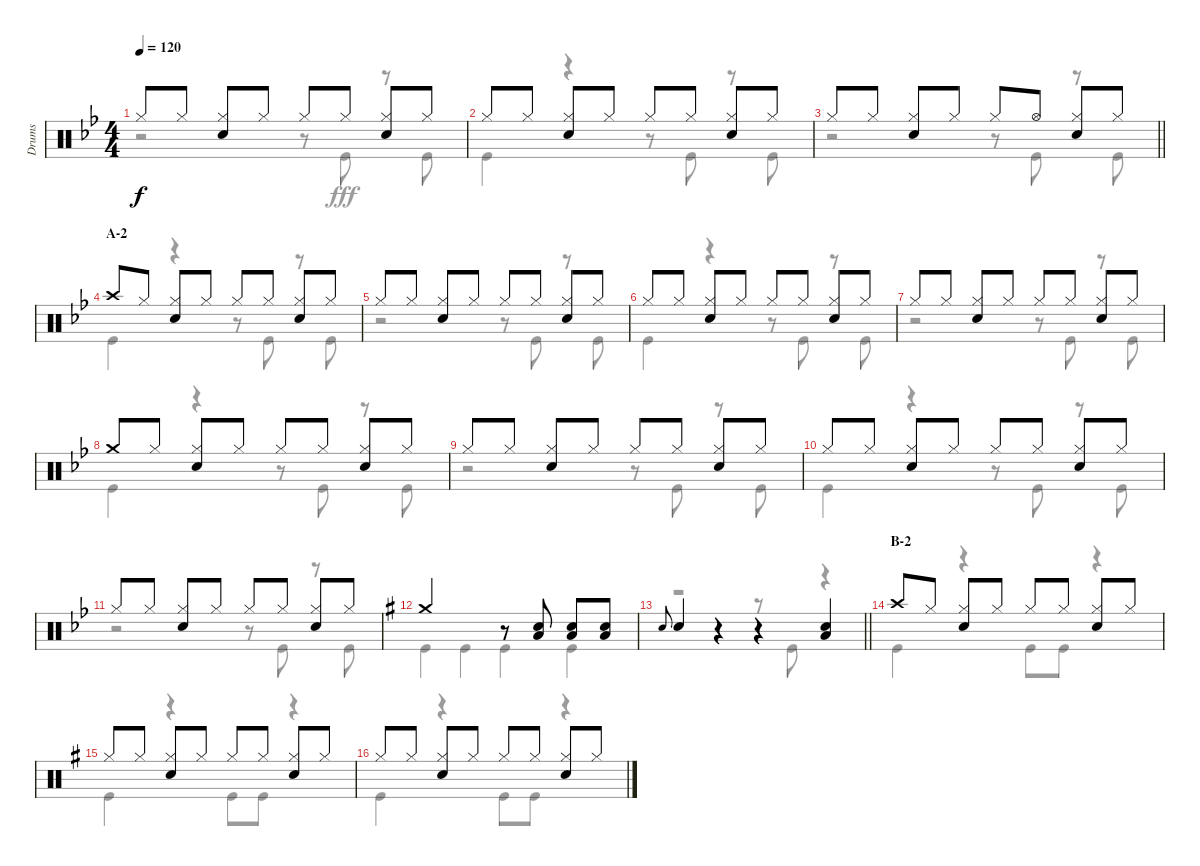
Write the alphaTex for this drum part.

\track ("Drums" "Drums") {instrument percussion}
\staff {score}
\articulation defaults
\voice
\ts (4 4)
\tempo 120
\clef neutral
\ks bb "Hi-Hat (closed)".8{dy f} "Hi-Hat (closed)".8
("Hi-Hat (closed)" "Snare (hit) 2").8 "Hi-Hat (closed)".8 "Hi-Hat (closed)".8 "Hi-Hat (closed)".8 ("Hi-Hat (closed)" "Snare (hit) 2").8 "Hi-Hat (closed)".8 |
"Hi-Hat (closed)".8 "Hi-Hat (closed)".8 ("Hi-Hat (closed)" "Snare (hit) 2").8 "Hi-Hat (closed)".8 "Hi-Hat (closed)".8 "Hi-Hat (closed)".8 ("Hi-Hat (closed)" "Snare (hit) 2").8 "Hi-Hat (closed)".8 |
\barLineRight lightlight "Hi-Hat (closed)".8 "Hi-Hat (closed)".8
("Hi-Hat (closed)" "Snare (hit) 2").8 "Hi-Hat (closed)".8 "Hi-Hat (closed)".8 "Hi-Hat (open)".8 ("Hi-Hat (closed)" "Snare (hit) 2").8 "Hi-Hat (closed)".8 |
\section ("" "A-2")
"Crash high (hit)".8 "Hi-Hat (closed)".8 ("Hi-Hat (closed)" "Snare (hit) 2").8 "Hi-Hat (closed)".8 "Hi-Hat (closed)".8 "Hi-Hat (closed)".8 ("Hi-Hat (closed)" "Snare (hit) 2").8 "Hi-Hat (closed)".8 |
"Hi-Hat (closed)".8 "Hi-Hat (closed)".8 ("Hi-Hat (closed)" "Snare (hit) 2").8 "Hi-Hat (closed)".8 "Hi-Hat (closed)".8 "Hi-Hat (closed)".8 ("Hi-Hat (closed)" "Snare (hit) 2").8 "Hi-Hat (closed)".8 |
"Hi-Hat (closed)".8 "Hi-Hat (closed)".8 ("Hi-Hat (closed)" "Snare (hit) 2").8 "Hi-Hat (closed)".8 "Hi-Hat (closed)".8 "Hi-Hat (closed)".8 ("Hi-Hat (closed)" "Snare (hit) 2").8 "Hi-Hat (closed)".8 |
"Hi-Hat (closed)".8 "Hi-Hat (closed)".8 ("Hi-Hat (closed)" "Snare (hit) 2").8 "Hi-Hat (closed)".8 "Hi-Hat (closed)".8 "Hi-Hat (closed)".8 ("Hi-Hat (closed)" "Snare (hit) 2").8 "Hi-Hat (closed)".8 |
"Crash medium (hit)".8 "Hi-Hat (closed)".8 ("Hi-Hat (closed)" "Snare (hit) 2").8 "Hi-Hat (closed)".8 "Hi-Hat (closed)".8 "Hi-Hat (closed)".8 ("Hi-Hat (closed)" "Snare (hit) 2").8 "Hi-Hat (closed)".8 |
"Hi-Hat (closed)".8 "Hi-Hat (closed)".8 ("Hi-Hat (closed)" "Snare (hit) 2").8 "Hi-Hat (closed)".8 "Hi-Hat (closed)".8 "Hi-Hat (closed)".8 ("Hi-Hat (closed)" "Snare (hit) 2").8 "Hi-Hat (closed)".8 |
"Hi-Hat (closed)".8 "Hi-Hat (closed)".8 ("Hi-Hat (closed)" "Snare (hit) 2").8 "Hi-Hat (closed)".8 "Hi-Hat (closed)".8 "Hi-Hat (closed)".8 ("Hi-Hat (closed)" "Snare (hit) 2").8 "Hi-Hat (closed)".8 |
"Hi-Hat (closed)".8 "Hi-Hat (closed)".8 ("Hi-Hat (closed)" "Snare (hit) 2").8 "Hi-Hat (closed)".8 "Hi-Hat (closed)".8 "Hi-Hat (closed)".8 ("Hi-Hat (closed)" "Snare (hit) 2").8 "Hi-Hat (closed)".8 |
\ks g "Crash medium (hit)".2
r.8 ("Snare (hit) 2" "Low Tom (hit)").8 ("Snare (hit) 2" "Low Tom (hit)").8 ("Snare (hit) 2" "Low Tom (hit)").8 |
\barLineRight lightlight "Snare (hit) 2".8{gr onbeat} "Snare (hit) 2".4
r.4 r.4 ("Snare (hit) 2" "Low Tom (hit)").4 |
\section ("" "B-2")
"Crash high (hit)".8 "Hi-Hat (closed)".8 ("Hi-Hat (closed)" "Snare (hit) 2").8 "Hi-Hat (closed)".8 "Hi-Hat (closed)".8 "Hi-Hat (closed)".8 ("Hi-Hat (closed)" "Snare (hit) 2").8 "Hi-Hat (closed)".8 |
"Hi-Hat (closed)".8 "Hi-Hat (closed)".8 ("Hi-Hat (closed)" "Snare (hit) 2").8 "Hi-Hat (closed)".8 "Hi-Hat (closed)".8 "Hi-Hat (closed)".8 ("Hi-Hat (closed)" "Snare (hit) 2").8 "Hi-Hat (closed)".8 |
"Hi-Hat (closed)".8 "Hi-Hat (closed)".8 ("Hi-Hat (closed)" "Snare (hit) 2").8 "Hi-Hat (closed)".8 "Hi-Hat (closed)".8 "Hi-Hat (closed)".8 ("Hi-Hat (closed)" "Snare (hit) 2").8 "Hi-Hat (closed)".8
\voice
\clef neutral
\ottava regular
\simile none
\ks bb
r.2{dy fff} r.8 "Kick (hit)".8 r.8 "Kick (hit)".8 |
"Kick (hit)".4 r.4 r.8 "Kick (hit)".8 r.8 "Kick (hit)".8 |
\barLineRight lightlight
r.2 r.8 "Kick (hit)".8 r.8 "Kick (hit)".8 |
"Kick (hit)".4 r.4 r.8 "Kick (hit)".8 r.8 "Kick (hit)".8 |
r.2 r.8 "Kick (hit)".8 r.8 "Kick (hit)".8 |
"Kick (hit)".4 r.4 r.8 "Kick (hit)".8 r.8 "Kick (hit)".8 |
r.2 r.8 "Kick (hit)".8 r.8 "Kick (hit)".8 |
"Kick (hit)".4 r.4 r.8 "Kick (hit)".8 r.8 "Kick (hit)".8 |
r.2 r.8 "Kick (hit)".8 r.8 "Kick (hit)".8 |
"Kick (hit)".4 r.4 r.8 "Kick (hit)".8 r.8 "Kick (hit)".8 |
r.2 r.8 "Kick (hit)".8 r.8 "Kick (hit)".8 |
\ks g "Kick (hit)".4 "Kick (hit)".4 "Kick (hit)".4 "Kick (hit)".4
|
\barLineRight lightlight
r.2 r.8 "Kick (hit)".8 r.4 |
"Kick (hit)".4 r.4 "Kick (hit)".8 "Kick (hit)".8 r.4 |
"Kick (hit)".4 r.4 "Kick (hit)".8 "Kick (hit)".8 r.4 |
"Kick (hit)".4 r.4 "Kick (hit)".8 "Kick (hit)".8 r.4
